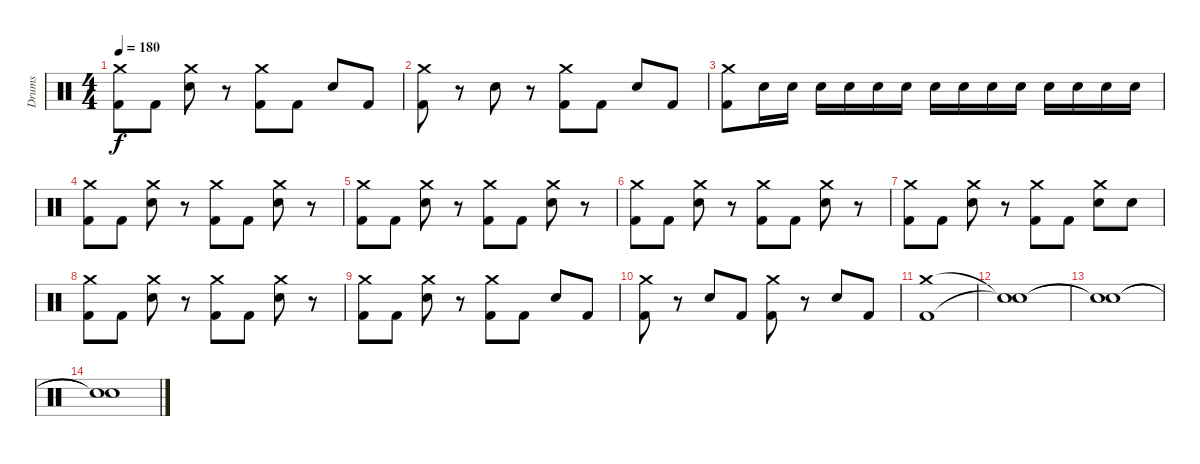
\track ("Drums" "Drums") {instrument percussion}
\staff {score}
\articulation defaults
\ts (4 4)
\tempo 180
\clef neutral
\ks c
("Crash medium (hit)" "Kick (hit) 2").8{dy f} "Kick (hit) 2".8 ("Crash medium (hit)" "Electric Snare (hit)").8 r.8 ("Crash medium (hit)" "Kick (hit) 2").8 "Kick (hit) 2".8 "Electric Snare (hit)".8 "Kick (hit) 2".8 |
("Crash medium (hit)" "Kick (hit) 2").8 r.8 "Electric Snare (hit)".8 r.8 ("Crash medium (hit)" "Kick (hit) 2").8 "Kick (hit) 2".8 "Electric Snare (hit)".8 "Kick (hit) 2".8 |
("Crash medium (hit)" "Kick (hit) 2").8 "Electric Snare (hit)".16 "Electric Snare (hit)".16 "Electric Snare (hit)".16 "Electric Snare (hit)".16 "Electric Snare (hit)".16 "Electric Snare (hit)".16 "Electric Snare (hit)".16 "Electric Snare (hit)".16 "Electric Snare (hit)".16 "Electric Snare (hit)".16 "Electric Snare (hit)".16 "Electric Snare (hit)".16 "Electric Snare (hit)".16 "Electric Snare (hit)".16 |
("Crash medium (hit)" "Kick (hit) 2").8 "Kick (hit) 2".8 ("Crash medium (hit)" "Electric Snare (hit)").8 r.8 ("Crash medium (hit)" "Kick (hit) 2").8 "Kick (hit) 2".8 ("Crash medium (hit)" "Electric Snare (hit)").8 r.8 |
("Crash medium (hit)" "Kick (hit) 2").8 "Kick (hit) 2".8 ("Crash medium (hit)" "Electric Snare (hit)").8 r.8 ("Crash medium (hit)" "Kick (hit) 2").8 "Kick (hit) 2".8 ("Crash medium (hit)" "Electric Snare (hit)").8 r.8 |
("Crash medium (hit)" "Kick (hit) 2").8 "Kick (hit) 2".8 ("Crash medium (hit)" "Electric Snare (hit)").8 r.8 ("Crash medium (hit)" "Kick (hit) 2").8 "Kick (hit) 2".8 ("Crash medium (hit)" "Electric Snare (hit)").8 r.8 |
("Crash medium (hit)" "Kick (hit) 2").8 "Kick (hit) 2".8 ("Crash medium (hit)" "Electric Snare (hit)").8 r.8 ("Crash medium (hit)" "Kick (hit) 2").8 "Kick (hit) 2".8 ("Crash medium (hit)" "Electric Snare (hit)").8 "Electric Snare (hit)".8 |
("Crash medium (hit)" "Kick (hit) 2").8 "Kick (hit) 2".8 ("Crash medium (hit)" "Electric Snare (hit)").8 r.8 ("Crash medium (hit)" "Kick (hit) 2").8 "Kick (hit) 2".8 ("Crash medium (hit)" "Electric Snare (hit)").8 r.8 |
("Crash medium (hit)" "Kick (hit) 2").8 "Kick (hit) 2".8 ("Crash medium (hit)" "Electric Snare (hit)").8 r.8 ("Crash medium (hit)" "Kick (hit) 2").8 "Kick (hit) 2".8 "Electric Snare (hit)".8 "Kick (hit) 2".8 |
("Crash medium (hit)" "Kick (hit) 2").8 r.8 "Electric Snare (hit)".8 "Kick (hit) 2".8 ("Crash medium (hit)" "Kick (hit) 2").8 r.8 "Electric Snare (hit)".8 "Kick (hit) 2".8 |
("Crash medium (hit)" "Kick (hit) 2").1 |
("Snare (hit)"{t} "Snare (hit)"{t}).1 |
("Snare (hit)"{t} "Snare (hit)"{t}).1 |
("Snare (hit)"{t} "Snare (hit)"{t}).1
